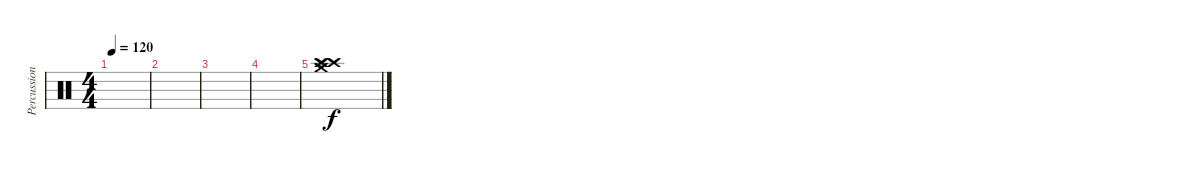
\track ("Percussion" "Percussion") {instrument percussion}
\staff {score}
\articulation defaults
\ts (4 4)
\tempo 120
\clef neutral
\ks c
|
|
|
|
("Crash high (hit)" "Crash medium (hit)" "Crash high (hit)" "Splash (hit)").1{volume 11}
